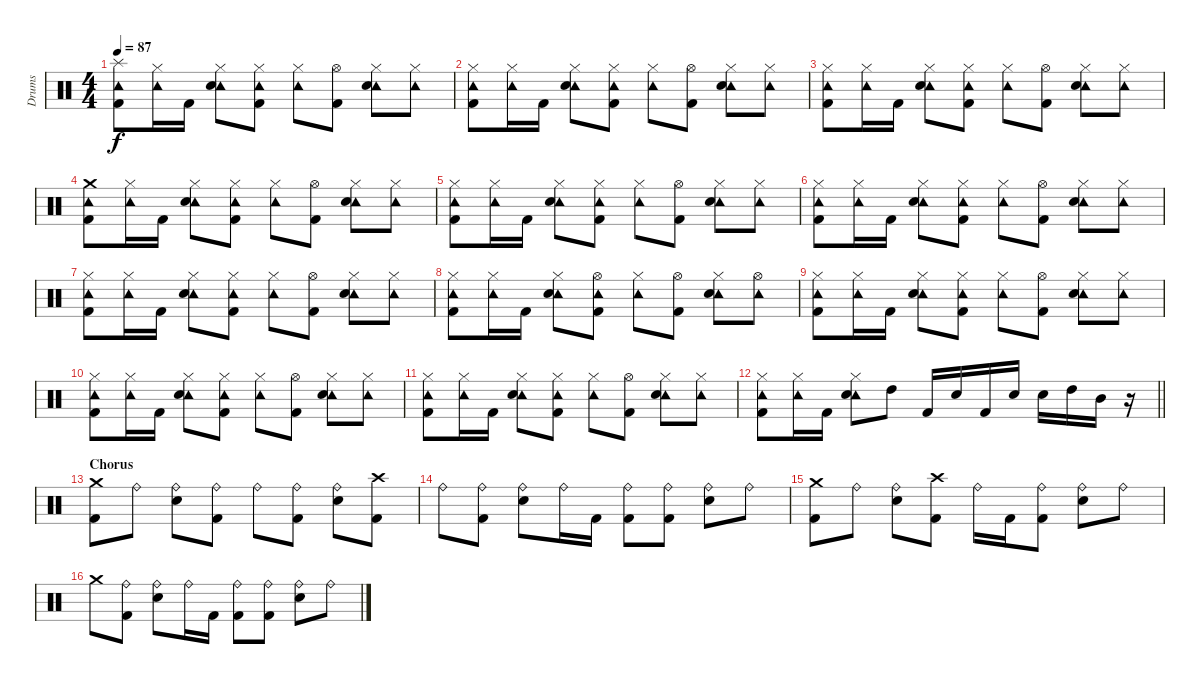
\track ("Drums" "Drums") {instrument percussion}
\staff {score}
\articulation defaults
\ts (4 4)
\tempo 87
\clef neutral
\ks c
("Tambourine (hit)" "Splash (hit)" "Kick (hit) 2").8{dy f} ("Tambourine (hit)" "Hi-Hat (closed)").16 "Kick (hit) 2".16 ("Tambourine (hit)" "Hi-Hat (closed)" "Snare (hit) 2").8 ("Tambourine (hit)" "Hi-Hat (closed)" "Kick (hit) 2").8 ("Tambourine (hit)" "Hi-Hat (closed)").8 ("Hi-Hat (open)" "Kick (hit) 2").8 ("Tambourine (hit)" "Hi-Hat (closed)" "Snare (hit) 2").8 ("Tambourine (hit)" "Hi-Hat (closed)").8 |
("Tambourine (hit)" "Hi-Hat (closed)" "Kick (hit) 2").8 ("Tambourine (hit)" "Hi-Hat (closed)").16 "Kick (hit) 2".16 ("Tambourine (hit)" "Hi-Hat (closed)" "Snare (hit) 2").8 ("Tambourine (hit)" "Hi-Hat (closed)" "Kick (hit) 2").8 ("Tambourine (hit)" "Hi-Hat (closed)").8 ("Hi-Hat (open)" "Kick (hit) 2").8 ("Tambourine (hit)" "Hi-Hat (closed)" "Snare (hit) 2").8 ("Tambourine (hit)" "Hi-Hat (closed)").8 |
("Tambourine (hit)" "Hi-Hat (closed)" "Kick (hit) 2").8 ("Tambourine (hit)" "Hi-Hat (closed)").16 "Kick (hit) 2".16 ("Tambourine (hit)" "Hi-Hat (closed)" "Snare (hit) 2").8 ("Tambourine (hit)" "Hi-Hat (closed)" "Kick (hit) 2").8 ("Tambourine (hit)" "Hi-Hat (closed)").8 ("Hi-Hat (open)" "Kick (hit) 2").8 ("Tambourine (hit)" "Hi-Hat (closed)" "Snare (hit) 2").8 ("Tambourine (hit)" "Hi-Hat (closed)").8 |
("Tambourine (hit)" "Crash medium (hit)" "Kick (hit) 2").8 ("Tambourine (hit)" "Hi-Hat (closed)").16 "Kick (hit) 2".16 ("Tambourine (hit)" "Hi-Hat (closed)" "Snare (hit) 2").8 ("Tambourine (hit)" "Hi-Hat (closed)" "Kick (hit) 2").8 ("Tambourine (hit)" "Hi-Hat (closed)").8 ("Hi-Hat (open)" "Kick (hit) 2").8 ("Tambourine (hit)" "Hi-Hat (closed)" "Snare (hit) 2").8 ("Tambourine (hit)" "Hi-Hat (closed)").8 |
("Tambourine (hit)" "Hi-Hat (closed)" "Kick (hit) 2").8 ("Tambourine (hit)" "Hi-Hat (closed)").16 "Kick (hit) 2".16 ("Tambourine (hit)" "Hi-Hat (closed)" "Snare (hit) 2").8 ("Tambourine (hit)" "Hi-Hat (closed)" "Kick (hit) 2").8 ("Tambourine (hit)" "Hi-Hat (closed)").8 ("Hi-Hat (open)" "Kick (hit) 2").8 ("Tambourine (hit)" "Hi-Hat (closed)" "Snare (hit) 2").8 ("Tambourine (hit)" "Hi-Hat (closed)").8 |
("Tambourine (hit)" "Hi-Hat (closed)" "Kick (hit) 2").8 ("Tambourine (hit)" "Hi-Hat (closed)").16 "Kick (hit) 2".16 ("Tambourine (hit)" "Hi-Hat (closed)" "Snare (hit) 2").8 ("Tambourine (hit)" "Hi-Hat (closed)" "Kick (hit) 2").8 ("Tambourine (hit)" "Hi-Hat (closed)").8 ("Hi-Hat (open)" "Kick (hit) 2").8 ("Tambourine (hit)" "Hi-Hat (closed)" "Snare (hit) 2").8 ("Tambourine (hit)" "Hi-Hat (closed)").8 |
("Tambourine (hit)" "Hi-Hat (closed)" "Kick (hit) 2").8 ("Tambourine (hit)" "Hi-Hat (closed)").16 "Kick (hit) 2".16 ("Tambourine (hit)" "Hi-Hat (closed)" "Snare (hit) 2").8 ("Tambourine (hit)" "Hi-Hat (closed)" "Kick (hit) 2").8 ("Tambourine (hit)" "Hi-Hat (closed)").8 ("Hi-Hat (open)" "Kick (hit) 2").8 ("Tambourine (hit)" "Hi-Hat (closed)" "Snare (hit) 2").8 ("Tambourine (hit)" "Hi-Hat (closed)").8 |
("Tambourine (hit)" "Hi-Hat (closed)" "Kick (hit) 2").8 ("Tambourine (hit)" "Hi-Hat (closed)").16 "Kick (hit) 2".16 ("Tambourine (hit)" "Hi-Hat (closed)" "Snare (hit) 2").8 ("Tambourine (hit)" "Hi-Hat (open)" "Kick (hit) 2").8 ("Tambourine (hit)" "Hi-Hat (closed)").8 ("Hi-Hat (open)" "Kick (hit) 2").8 ("Tambourine (hit)" "Hi-Hat (closed)" "Snare (hit) 2").8 ("Tambourine (hit)" "Hi-Hat (open)").8 |
("Tambourine (hit)" "Hi-Hat (closed)" "Kick (hit) 2").8 ("Tambourine (hit)" "Hi-Hat (closed)").16 "Kick (hit) 2".16 ("Tambourine (hit)" "Hi-Hat (closed)" "Snare (hit) 2").8 ("Tambourine (hit)" "Hi-Hat (closed)" "Kick (hit) 2").8 ("Tambourine (hit)" "Hi-Hat (closed)").8 ("Hi-Hat (open)" "Kick (hit) 2").8 ("Tambourine (hit)" "Hi-Hat (closed)" "Snare (hit) 2").8 ("Tambourine (hit)" "Hi-Hat (closed)").8 |
("Tambourine (hit)" "Hi-Hat (closed)" "Kick (hit) 2").8 ("Tambourine (hit)" "Hi-Hat (closed)").16 "Kick (hit) 2".16 ("Tambourine (hit)" "Hi-Hat (closed)" "Snare (hit) 2").8 ("Tambourine (hit)" "Hi-Hat (closed)" "Kick (hit) 2").8 ("Tambourine (hit)" "Hi-Hat (closed)").8 ("Hi-Hat (open)" "Kick (hit) 2").8 ("Tambourine (hit)" "Hi-Hat (closed)" "Snare (hit) 2").8 ("Tambourine (hit)" "Hi-Hat (closed)").8 |
("Tambourine (hit)" "Hi-Hat (closed)" "Kick (hit) 2").8 ("Tambourine (hit)" "Hi-Hat (closed)").16 "Kick (hit) 2".16 ("Tambourine (hit)" "Hi-Hat (closed)" "Snare (hit) 2").8 ("Tambourine (hit)" "Hi-Hat (closed)" "Kick (hit) 2").8 ("Tambourine (hit)" "Hi-Hat (closed)").8 ("Hi-Hat (open)" "Kick (hit) 2").8 ("Tambourine (hit)" "Hi-Hat (closed)" "Snare (hit) 2").8 ("Tambourine (hit)" "Hi-Hat (closed)").8 |
\barLineRight lightlight
("Tambourine (hit)" "Hi-Hat (closed)" "Kick (hit) 2").8 ("Tambourine (hit)" "Hi-Hat (closed)").16 "Kick (hit) 2".16 ("Tambourine (hit)" "Hi-Hat (closed)" "Snare (hit) 2").8 "High Tom (hit)".8 "Kick (hit) 2".16 "Snare (hit) 2".16 "Kick (hit) 2".16 "Snare (hit) 2".16 "Snare (hit) 2".16 "High Tom (hit)".16 "Mid Tom (hit)".16 r.16 |
\section ("" "Chorus")
("Crash medium (hit)" "Kick (hit) 2").8 "Ride (bell)".8 ("Ride (bell)" "Snare (hit) 2").8 ("Ride (bell)" "Kick (hit) 2").8 "Ride (bell)".8 ("Ride (bell)" "Kick (hit) 2").8 ("Ride (bell)" "Snare (hit) 2").8 ("Crash high (hit)" "Kick (hit) 2").8 |
"Ride (bell)".8 ("Ride (bell)" "Kick (hit) 2").8 ("Ride (bell)" "Snare (hit) 2").8 "Ride (bell)".16 "Kick (hit) 2".16 ("Ride (bell)" "Kick (hit) 2").8 ("Ride (bell)" "Kick (hit) 2").8 ("Ride (bell)" "Snare (hit) 2").8 "Ride (bell)".8 |
("Crash medium (hit)" "Kick (hit) 2").8 "Ride (bell)".8 ("Ride (bell)" "Snare (hit) 2").8 ("Crash high (hit)" "Kick (hit) 2").8 "Ride (bell)".16 "Kick (hit) 2".16 ("Ride (bell)" "Kick (hit) 2").8 ("Ride (bell)" "Snare (hit) 2").8 "Ride (bell)".8 |
"Crash medium (hit)".8 ("Ride (bell)" "Kick (hit) 2").8 ("Ride (bell)" "Snare (hit) 2").8 "Ride (bell)".16 "Kick (hit) 2".16 ("Ride (bell)" "Kick (hit) 2").8 ("Ride (bell)" "Kick (hit) 2").8 ("Ride (bell)" "Snare (hit) 2").8 "Ride (bell)".8
